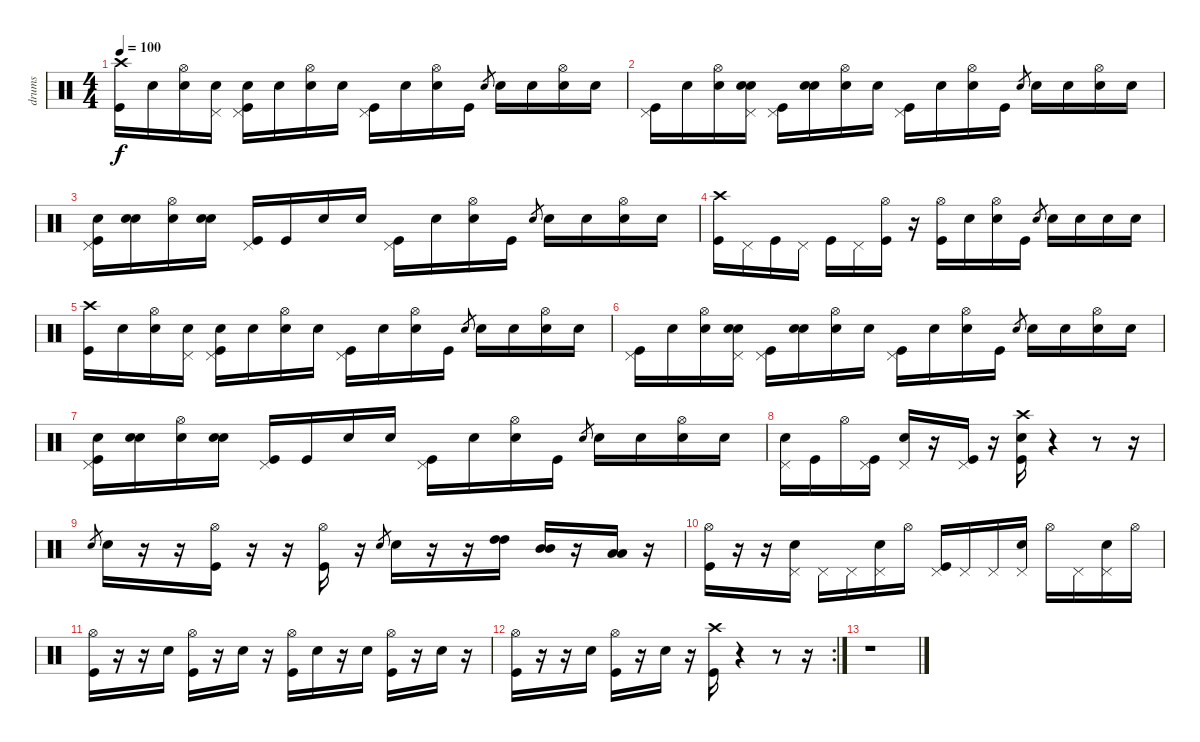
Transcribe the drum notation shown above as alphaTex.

\track ("drums" "drums") {instrument percussion}
\staff {score}
\articulation defaults
\ts (4 4)
\tempo 100
\clef neutral
\ks c
("Crash high (hit)" "Kick (hit)").16{dy f} "Snare (hit)"{x}.16 ("Hi-Hat (open)" "Snare (hit)"{x}).16 ("Pedal Hi-Hat (hit)" "Snare (hit)"{x}).16 ("Pedal Hi-Hat (hit)" "Electric Snare (hit)" "Kick (hit)").16 "Snare (hit)"{x}.16 ("Hi-Hat (open)" "Snare (hit)"{x}).16 "Snare (hit)"{x}.16 ("Pedal Hi-Hat (hit)" "Kick (hit)").16 "Snare (hit)"{x}.16 ("Hi-Hat (open)" "Snare (hit)"{x}).16 "Kick (hit)".16 "Electric Snare (hit)".8{gr} "Electric Snare (hit)".16 "Snare (hit)"{x}.16 ("Hi-Hat (open)" "Snare (hit)"{x}).16 "Snare (hit)"{x}.16 |
("Pedal Hi-Hat (hit)" "Kick (hit)").16 "Snare (hit)"{x}.16 ("Hi-Hat (open)" "Snare (hit)"{x}).16 ("Pedal Hi-Hat (hit)" "Electric Snare (hit)" "Snare (hit)"{x}).16 ("Pedal Hi-Hat (hit)" "Kick (hit)").16 ("Electric Snare (hit)" "Snare (hit)"{x}).16 ("Hi-Hat (open)" "Snare (hit)"{x}).16 "Snare (hit)"{x}.16 ("Pedal Hi-Hat (hit)" "Kick (hit)").16 "Snare (hit)"{x}.16 ("Hi-Hat (open)" "Snare (hit)"{x}).16 "Kick (hit)".16 "Electric Snare (hit)".8{gr} "Electric Snare (hit)".16 "Snare (hit)"{x}.16 ("Hi-Hat (open)" "Snare (hit)"{x}).16 "Snare (hit)"{x}.16 |
("Pedal Hi-Hat (hit)" "Electric Snare (hit)" "Kick (hit)").16 ("Electric Snare (hit)" "Snare (hit)"{x}).16 ("Hi-Hat (open)" "Snare (hit)"{x}).16 ("Electric Snare (hit)" "Snare (hit)"{x}).16 ("Pedal Hi-Hat (hit)" "Kick (hit)").16 "Kick (hit)".16 "Electric Snare (hit)".16 "Snare (hit)"{x}.16 ("Pedal Hi-Hat (hit)" "Kick (hit)").16 "Snare (hit)"{x}.16 ("Hi-Hat (open)" "Snare (hit)"{x}).16 "Kick (hit)".16 "Electric Snare (hit)".8{gr} "Electric Snare (hit)".16 "Snare (hit)"{x}.16 ("Hi-Hat (open)" "Snare (hit)"{x}).16 "Snare (hit)"{x}.16 |
("Crash high (hit)" "Kick (hit)").16 "Pedal Hi-Hat (hit)".16 "Kick (hit)".16 "Pedal Hi-Hat (hit)".16 "Kick (hit)".16 "Pedal Hi-Hat (hit)".16 ("Hi-Hat (open)" "Kick (hit)").16 r.16 ("Hi-Hat (open)" "Kick (hit)").16 "Snare (hit)"{x}.16 ("Hi-Hat (open)" "Snare (hit)"{x}).16 "Kick (hit)".16 "Electric Snare (hit)".8{gr} "Electric Snare (hit)".16 "Snare (hit)"{x}.16 "Snare (hit)"{x}.16 "Snare (hit)"{x}.16 |
("Crash high (hit)" "Kick (hit)").16 "Snare (hit)"{x}.16 ("Hi-Hat (open)" "Snare (hit)"{x}).16 ("Pedal Hi-Hat (hit)" "Snare (hit)"{x}).16 ("Pedal Hi-Hat (hit)" "Electric Snare (hit)" "Kick (hit)").16 "Snare (hit)"{x}.16 ("Hi-Hat (open)" "Snare (hit)"{x}).16 "Snare (hit)"{x}.16 ("Pedal Hi-Hat (hit)" "Kick (hit)").16 "Snare (hit)"{x}.16 ("Hi-Hat (open)" "Snare (hit)"{x}).16 "Kick (hit)".16 "Electric Snare (hit)".8{gr} "Electric Snare (hit)".16 "Snare (hit)"{x}.16 ("Hi-Hat (open)" "Snare (hit)"{x}).16 "Snare (hit)"{x}.16 |
("Pedal Hi-Hat (hit)" "Kick (hit)").16 "Snare (hit)"{x}.16 ("Hi-Hat (open)" "Snare (hit)"{x}).16 ("Pedal Hi-Hat (hit)" "Electric Snare (hit)" "Snare (hit)"{x}).16 ("Pedal Hi-Hat (hit)" "Kick (hit)").16 ("Electric Snare (hit)" "Snare (hit)"{x}).16 ("Hi-Hat (open)" "Snare (hit)"{x}).16 "Snare (hit)"{x}.16 ("Pedal Hi-Hat (hit)" "Kick (hit)").16 "Snare (hit)"{x}.16 ("Hi-Hat (open)" "Snare (hit)"{x}).16 "Kick (hit)".16 "Electric Snare (hit)".8{gr} "Electric Snare (hit)".16 "Snare (hit)"{x}.16 ("Hi-Hat (open)" "Snare (hit)"{x}).16 "Snare (hit)"{x}.16 |
("Pedal Hi-Hat (hit)" "Electric Snare (hit)" "Kick (hit)").16 ("Electric Snare (hit)" "Snare (hit)"{x}).16 ("Hi-Hat (open)" "Snare (hit)"{x}).16 ("Electric Snare (hit)" "Snare (hit)"{x}).16 ("Pedal Hi-Hat (hit)" "Kick (hit)").16 "Kick (hit)".16 "Electric Snare (hit)".16 "Snare (hit)"{x}.16 ("Pedal Hi-Hat (hit)" "Kick (hit)").16 "Snare (hit)"{x}.16 ("Hi-Hat (open)" "Snare (hit)"{x}).16 "Kick (hit)".16 "Electric Snare (hit)".8{gr} "Electric Snare (hit)".16 "Snare (hit)"{x}.16 ("Hi-Hat (open)" "Snare (hit)"{x}).16 "Snare (hit)"{x}.16 |
("Pedal Hi-Hat (hit)" "Electric Snare (hit)").16 "Kick (hit)".16 "Hi-Hat (open)".16 ("Pedal Hi-Hat (hit)" "Kick (hit)").16 ("Pedal Hi-Hat (hit)" "Electric Snare (hit)").16 r.16 ("Pedal Hi-Hat (hit)" "Kick (hit)").16 r.16 ("Crash high (hit)" "Electric Snare (hit)" "Kick (hit)").16 r.4 r.8 r.16 |
"Electric Snare (hit)".8{gr} "Electric Snare (hit)".16 r.16 r.16 ("Hi-Hat (open)" "Kick (hit)").16 r.16 r.16 ("Hi-Hat (open)" "Kick (hit)").16 r.16 "Electric Snare (hit)".8{gr} "Electric Snare (hit)".16 r.16 r.16 ("High Tom (hit)" "High Tom (hit)").16 ("Mid Tom (hit)" "Mid Tom (hit)").16 r.16 ("Low Tom (hit)" "Low Tom (hit)").16 r.16 |
("Hi-Hat (open)" "Kick (hit)").16 r.16 r.16 ("Pedal Hi-Hat (hit)" "Electric Snare (hit)").16 "Pedal Hi-Hat (hit)".16 "Pedal Hi-Hat (hit)".16 ("Pedal Hi-Hat (hit)" "Electric Snare (hit)").16 "Hi-Hat (open)".16 ("Pedal Hi-Hat (hit)" "Kick (hit)").16 "Pedal Hi-Hat (hit)".16 "Pedal Hi-Hat (hit)".16 ("Pedal Hi-Hat (hit)" "Electric Snare (hit)").16 "Hi-Hat (open)".16 "Pedal Hi-Hat (hit)".16 ("Pedal Hi-Hat (hit)" "Electric Snare (hit)").16 "Hi-Hat (open)".16 |
("Hi-Hat (open)" "Kick (hit)").16 r.16 r.16 "Electric Snare (hit)".16 ("Hi-Hat (open)" "Kick (hit)").16 r.16 "Electric Snare (hit)".16 r.16 ("Hi-Hat (open)" "Kick (hit)").16 "Electric Snare (hit)".16 r.16 "Electric Snare (hit)".16 ("Hi-Hat (open)" "Kick (hit)").16 r.16 "Electric Snare (hit)".16 r.16 |
\rc 2
("Hi-Hat (open)" "Kick (hit)").16 r.16 r.16 "Electric Snare (hit)".16 ("Hi-Hat (open)" "Kick (hit)").16 r.16 "Electric Snare (hit)".16 r.16 ("Crash high (hit)" "Kick (hit)").16 r.4 r.8 r.16 |
r.1
